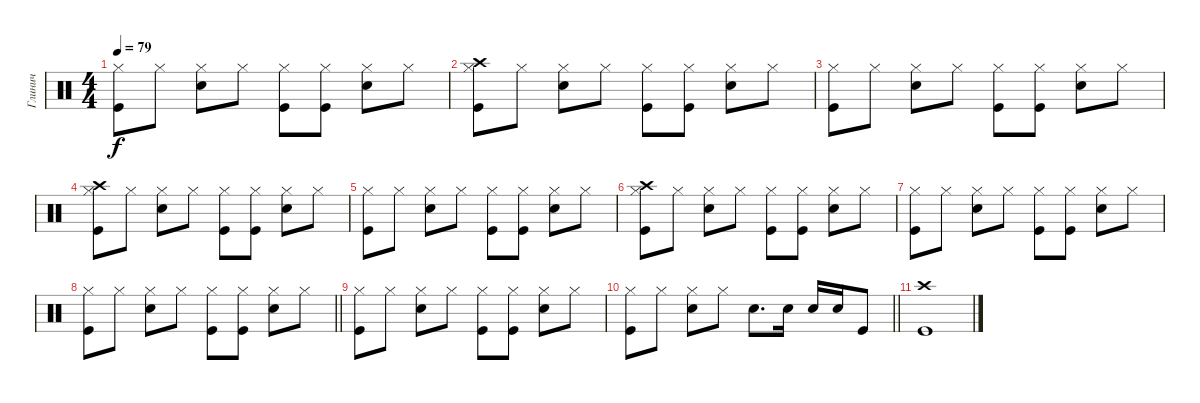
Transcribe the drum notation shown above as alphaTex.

\track ("Глинич" "Глинич") {instrument percussion}
\staff {score}
\articulation defaults
\ts (4 4)
\tempo 79
\clef neutral
\ks c
("Hi-Hat (closed)" "Kick (hit)").8{dy f} "Hi-Hat (closed)".8 ("Hi-Hat (closed)" "Snare (hit) 2").8 "Hi-Hat (closed)".8 ("Hi-Hat (closed)" "Kick (hit)").8 ("Hi-Hat (closed)" "Kick (hit)").8 ("Hi-Hat (closed)" "Snare (hit) 2").8 "Hi-Hat (closed)".8 |
("Hi-Hat (closed)" "Crash high (hit)" "Kick (hit)").8 "Hi-Hat (closed)".8 ("Hi-Hat (closed)" "Snare (hit) 2").8 "Hi-Hat (closed)".8 ("Hi-Hat (closed)" "Kick (hit)").8 ("Hi-Hat (closed)" "Kick (hit)").8 ("Hi-Hat (closed)" "Snare (hit) 2").8 "Hi-Hat (closed)".8 |
("Hi-Hat (closed)" "Kick (hit)").8 "Hi-Hat (closed)".8 ("Hi-Hat (closed)" "Snare (hit) 2").8 "Hi-Hat (closed)".8 ("Hi-Hat (closed)" "Kick (hit)").8 ("Hi-Hat (closed)" "Kick (hit)").8 ("Hi-Hat (closed)" "Snare (hit) 2").8 "Hi-Hat (closed)".8 |
("Hi-Hat (closed)" "Crash high (hit)" "Kick (hit)").8 "Hi-Hat (closed)".8 ("Hi-Hat (closed)" "Snare (hit) 2").8 "Hi-Hat (closed)".8 ("Hi-Hat (closed)" "Kick (hit)").8 ("Hi-Hat (closed)" "Kick (hit)").8 ("Hi-Hat (closed)" "Snare (hit) 2").8 "Hi-Hat (closed)".8 |
("Hi-Hat (closed)" "Kick (hit)").8 "Hi-Hat (closed)".8 ("Hi-Hat (closed)" "Snare (hit) 2").8 "Hi-Hat (closed)".8 ("Hi-Hat (closed)" "Kick (hit)").8 ("Hi-Hat (closed)" "Kick (hit)").8 ("Hi-Hat (closed)" "Snare (hit) 2").8 "Hi-Hat (closed)".8 |
("Hi-Hat (closed)" "Crash high (hit)" "Kick (hit)").8 "Hi-Hat (closed)".8 ("Hi-Hat (closed)" "Snare (hit) 2").8 "Hi-Hat (closed)".8 ("Hi-Hat (closed)" "Kick (hit)").8 ("Hi-Hat (closed)" "Kick (hit)").8 ("Hi-Hat (closed)" "Snare (hit) 2").8 "Hi-Hat (closed)".8 |
("Hi-Hat (closed)" "Kick (hit)").8 "Hi-Hat (closed)".8 ("Hi-Hat (closed)" "Snare (hit) 2").8 "Hi-Hat (closed)".8 ("Hi-Hat (closed)" "Kick (hit)").8 ("Hi-Hat (closed)" "Kick (hit)").8 ("Hi-Hat (closed)" "Snare (hit) 2").8 "Hi-Hat (closed)".8 |
\barLineRight lightlight
("Hi-Hat (closed)" "Kick (hit)").8 "Hi-Hat (closed)".8 ("Hi-Hat (closed)" "Snare (hit) 2").8 "Hi-Hat (closed)".8 ("Hi-Hat (closed)" "Kick (hit)").8 ("Hi-Hat (closed)" "Kick (hit)").8 ("Hi-Hat (closed)" "Snare (hit) 2").8 "Hi-Hat (closed)".8 |
("Hi-Hat (closed)" "Kick (hit)").8 "Hi-Hat (closed)".8 ("Hi-Hat (closed)" "Snare (hit) 2").8 "Hi-Hat (closed)".8 ("Hi-Hat (closed)" "Kick (hit)").8 ("Hi-Hat (closed)" "Kick (hit)").8 ("Hi-Hat (closed)" "Snare (hit) 2").8 "Hi-Hat (closed)".8 |
\barLineRight lightlight
("Hi-Hat (closed)" "Kick (hit)").8 "Hi-Hat (closed)".8 ("Hi-Hat (closed)" "Snare (hit) 2").8 "Hi-Hat (closed)".8 "Snare (hit) 2".8{d} "Snare (hit) 2".16 "Snare (hit) 2".16 "Snare (hit) 2".16 "Kick (hit)".8 |
("Kick (hit)" "Crash high (hit)").1
